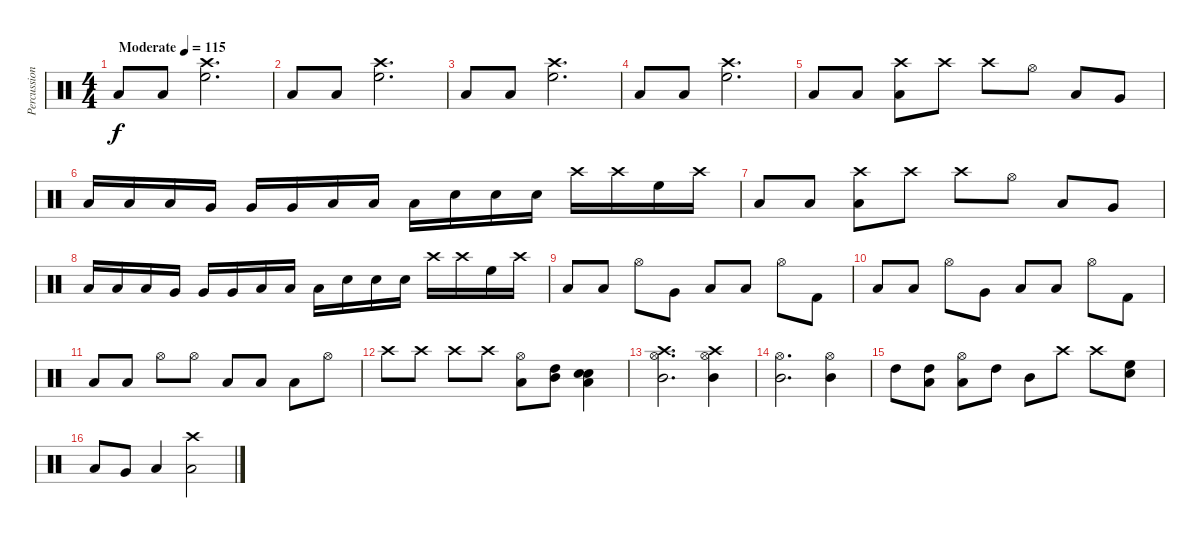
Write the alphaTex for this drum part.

\track ("Percussion" "Percussion") {instrument percussion}
\staff {score}
\articulation defaults
\ts (4 4)
\tempo (115 "Moderate")
\clef neutral
\ks c "Low Tom (hit)".8{dy f} "Low Floor Tom (hit)".8
("Crash high (hit)" "High Floor Tom (hit)").2{d} |
"Low Tom (hit)".8 "Low Floor Tom (hit)".8 ("Crash high (hit)" "High Floor Tom (hit)").2{d} |
"Low Tom (hit)".8 "Low Floor Tom (hit)".8 ("Crash high (hit)" "High Floor Tom (hit)").2{d} |
"Low Tom (hit)".8 "Low Floor Tom (hit)".8 ("Crash high (hit)" "High Floor Tom (hit)").2{d} |
"Low Floor Tom (hit)".8 "Low Floor Tom (hit)".8 ("Crash high (hit)" "Low Tom (hit)").8 "Crash high (hit)".8 "Crash high (hit)".8 "Hi-Hat (open)".8 "Low Tom (hit)".8 "Very Low Tom (hit)".8 |
"Low Tom (hit)".16 "Low Tom (hit)".16 "Low Tom (hit)".16 "Very Low Tom (hit)".16 "Very Low Tom (hit)".16 "Very Low Tom (hit)".16 "Low Floor Tom (hit)".16 "Low Floor Tom (hit)".16 "Low Floor Tom (hit)".16 "Electric Snare (hit)".16 "Electric Snare (hit)".16 "Electric Snare (hit)".16 "Crash high (hit)".16 "Crash high (hit)".16 "High Floor Tom (hit)".16 "Crash high (hit)".16 |
"Low Floor Tom (hit)".8 "Low Floor Tom (hit)".8 ("Crash high (hit)" "Low Tom (hit)").8 "Crash high (hit)".8 "Crash high (hit)".8 "Hi-Hat (open)".8 "Low Tom (hit)".8 "Very Low Tom (hit)".8 |
"Low Tom (hit)".16 "Low Tom (hit)".16 "Low Tom (hit)".16 "Very Low Tom (hit)".16 "Very Low Tom (hit)".16 "Very Low Tom (hit)".16 "Low Floor Tom (hit)".16 "Low Floor Tom (hit)".16 "Low Floor Tom (hit)".16 "Electric Snare (hit)".16 "Electric Snare (hit)".16 "Electric Snare (hit)".16 "Crash high (hit)".16 "Crash high (hit)".16 "High Floor Tom (hit)".16 "Crash high (hit)".16 |
"Low Tom (hit)".8 "Low Tom (hit)".8 "Hi-Hat (open)".8 "Very Low Tom (hit)".8 "Low Tom (hit)".8 "Low Tom (hit)".8 "Hi-Hat (open)".8 "Kick (hit) 2".8 |
"Low Tom (hit)".8 "Low Tom (hit)".8 "Hi-Hat (open)".8 "Very Low Tom (hit)".8 "Low Tom (hit)".8 "Low Tom (hit)".8 "Hi-Hat (open)".8 "Kick (hit) 2".8 |
"Low Tom (hit)".8 "Low Tom (hit)".8 "Hi-Hat (open)".8 "Hi-Hat (open)".8 "Low Tom (hit)".8 "Low Tom (hit)".8 "Low Tom (hit)".8 "Hi-Hat (open)".8 |
"Crash high (hit)".8 "Crash high (hit)".8 "Crash high (hit)".8 "Crash high (hit)".8 ("Low Tom (hit)" "Hi-Hat (open)").8 ("High Tom (hit)" "Mid Tom (hit)").8 ("Snare (hit) 2" "Electric Snare (hit)" "Low Floor Tom (hit)").4 |
("Crash high (hit)" "Mid Tom (hit)" "Hi-Hat (open)").2{d} ("Crash high (hit)" "Mid Tom (hit)" "Hi-Hat (open)").4 |
("Mid Tom (hit)" "Hi-Hat (open)").2{d} ("Mid Tom (hit)" "Hi-Hat (open)").4 |
"High Tom (hit)".8 ("Low Tom (hit)" "High Tom (hit)").8 ("Low Tom (hit)" "Hi-Hat (open)").8 "High Tom (hit)".8 "Mid Tom (hit)".8 "Crash high (hit)".8 "Crash high (hit)".8 ("Electric Snare (hit)" "High Floor Tom (hit)").8 |
"Low Floor Tom (hit)".8 "Very Low Tom (hit)".8 "Low Tom (hit)".4 ("Low Tom (hit)" "Crash high (hit)").2
